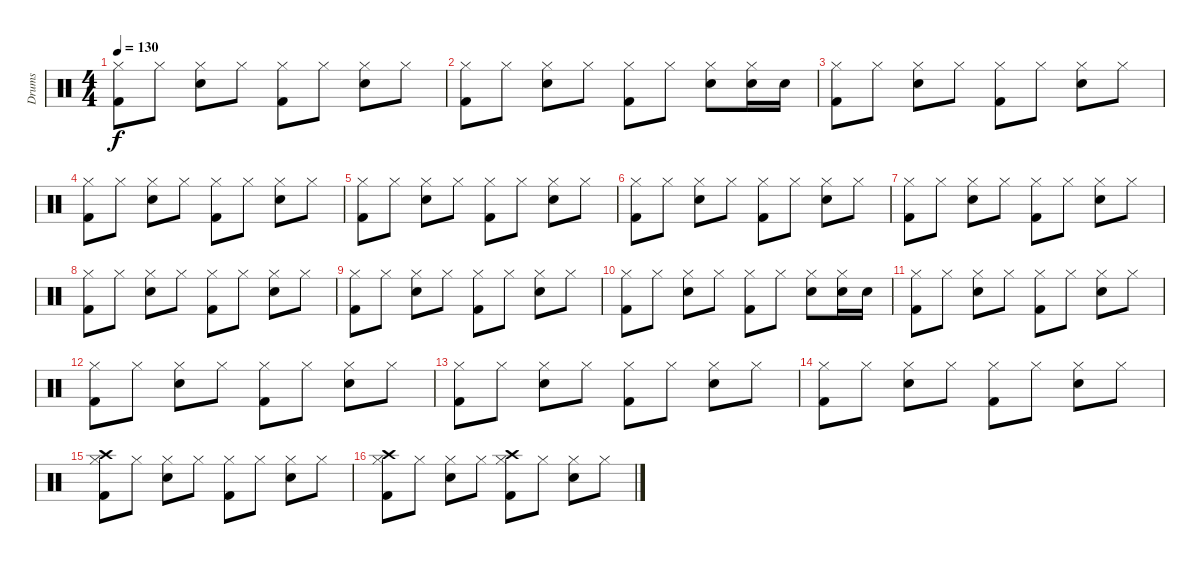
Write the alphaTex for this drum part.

\track ("Drums" "Drums") {instrument percussion}
\staff {score}
\articulation defaults
\ts (4 4)
\tempo 130
\clef neutral
\ks c
("Kick (hit) 2" "Hi-Hat (closed)").8{dy f} "Hi-Hat (closed)".8 ("Snare (hit) 2" "Hi-Hat (closed)").8 "Hi-Hat (closed)".8 ("Kick (hit) 2" "Hi-Hat (closed)").8 "Hi-Hat (closed)".8 ("Snare (hit) 2" "Hi-Hat (closed)").8 "Hi-Hat (closed)".8 |
("Kick (hit) 2" "Hi-Hat (closed)").8 "Hi-Hat (closed)".8 ("Snare (hit) 2" "Hi-Hat (closed)").8 "Hi-Hat (closed)".8 ("Kick (hit) 2" "Hi-Hat (closed)").8 "Hi-Hat (closed)".8 ("Snare (hit) 2" "Hi-Hat (closed)").8 ("Snare (hit) 2" "Hi-Hat (closed)").16 "Snare (hit) 2".16 |
("Kick (hit) 2" "Hi-Hat (closed)").8 "Hi-Hat (closed)".8 ("Snare (hit) 2" "Hi-Hat (closed)").8 "Hi-Hat (closed)".8 ("Kick (hit) 2" "Hi-Hat (closed)").8 "Hi-Hat (closed)".8 ("Snare (hit) 2" "Hi-Hat (closed)").8 "Hi-Hat (closed)".8 |
("Kick (hit) 2" "Hi-Hat (closed)").8 "Hi-Hat (closed)".8 ("Snare (hit) 2" "Hi-Hat (closed)").8 "Hi-Hat (closed)".8 ("Kick (hit) 2" "Hi-Hat (closed)").8 "Hi-Hat (closed)".8 ("Snare (hit) 2" "Hi-Hat (closed)").8 "Hi-Hat (closed)".8 |
("Kick (hit) 2" "Hi-Hat (closed)").8 "Hi-Hat (closed)".8 ("Snare (hit) 2" "Hi-Hat (closed)").8 "Hi-Hat (closed)".8 ("Kick (hit) 2" "Hi-Hat (closed)").8 "Hi-Hat (closed)".8 ("Snare (hit) 2" "Hi-Hat (closed)").8 "Hi-Hat (closed)".8 |
("Kick (hit) 2" "Hi-Hat (closed)").8 "Hi-Hat (closed)".8 ("Snare (hit) 2" "Hi-Hat (closed)").8 "Hi-Hat (closed)".8 ("Kick (hit) 2" "Hi-Hat (closed)").8 "Hi-Hat (closed)".8 ("Snare (hit) 2" "Hi-Hat (closed)").8 "Hi-Hat (closed)".8 |
("Kick (hit) 2" "Hi-Hat (closed)").8 "Hi-Hat (closed)".8 ("Snare (hit) 2" "Hi-Hat (closed)").8 "Hi-Hat (closed)".8 ("Kick (hit) 2" "Hi-Hat (closed)").8 "Hi-Hat (closed)".8 ("Snare (hit) 2" "Hi-Hat (closed)").8 "Hi-Hat (closed)".8 |
("Kick (hit) 2" "Hi-Hat (closed)").8 "Hi-Hat (closed)".8 ("Snare (hit) 2" "Hi-Hat (closed)").8 "Hi-Hat (closed)".8 ("Kick (hit) 2" "Hi-Hat (closed)").8 "Hi-Hat (closed)".8 ("Snare (hit) 2" "Hi-Hat (closed)").8 "Hi-Hat (closed)".8 |
("Kick (hit) 2" "Hi-Hat (closed)").8 "Hi-Hat (closed)".8 ("Snare (hit) 2" "Hi-Hat (closed)").8 "Hi-Hat (closed)".8 ("Kick (hit) 2" "Hi-Hat (closed)").8 "Hi-Hat (closed)".8 ("Snare (hit) 2" "Hi-Hat (closed)").8 "Hi-Hat (closed)".8 |
("Kick (hit) 2" "Hi-Hat (closed)").8 "Hi-Hat (closed)".8 ("Snare (hit) 2" "Hi-Hat (closed)").8 "Hi-Hat (closed)".8 ("Kick (hit) 2" "Hi-Hat (closed)").8 "Hi-Hat (closed)".8 ("Snare (hit) 2" "Hi-Hat (closed)").8 ("Snare (hit) 2" "Hi-Hat (closed)").16 "Snare (hit) 2".16 |
("Kick (hit) 2" "Hi-Hat (closed)").8 "Hi-Hat (closed)".8 ("Snare (hit) 2" "Hi-Hat (closed)").8 "Hi-Hat (closed)".8 ("Kick (hit) 2" "Hi-Hat (closed)").8 "Hi-Hat (closed)".8 ("Snare (hit) 2" "Hi-Hat (closed)").8 "Hi-Hat (closed)".8 |
("Kick (hit) 2" "Hi-Hat (closed)").8 "Hi-Hat (closed)".8 ("Snare (hit) 2" "Hi-Hat (closed)").8 "Hi-Hat (closed)".8 ("Kick (hit) 2" "Hi-Hat (closed)").8 "Hi-Hat (closed)".8 ("Snare (hit) 2" "Hi-Hat (closed)").8 "Hi-Hat (closed)".8 |
("Kick (hit) 2" "Hi-Hat (closed)").8 "Hi-Hat (closed)".8 ("Snare (hit) 2" "Hi-Hat (closed)").8 "Hi-Hat (closed)".8 ("Kick (hit) 2" "Hi-Hat (closed)").8 "Hi-Hat (closed)".8 ("Snare (hit) 2" "Hi-Hat (closed)").8 "Hi-Hat (closed)".8 |
("Kick (hit) 2" "Hi-Hat (closed)").8 "Hi-Hat (closed)".8 ("Snare (hit) 2" "Hi-Hat (closed)").8 "Hi-Hat (closed)".8 ("Kick (hit) 2" "Hi-Hat (closed)").8 "Hi-Hat (closed)".8 ("Snare (hit) 2" "Hi-Hat (closed)").8 "Hi-Hat (closed)".8 |
("Kick (hit) 2" "Hi-Hat (closed)" "Crash high (hit)").8 "Hi-Hat (closed)".8 ("Snare (hit) 2" "Hi-Hat (closed)").8 "Hi-Hat (closed)".8 ("Kick (hit) 2" "Hi-Hat (closed)").8 "Hi-Hat (closed)".8 ("Snare (hit) 2" "Hi-Hat (closed)").8 "Hi-Hat (closed)".8 |
("Kick (hit) 2" "Hi-Hat (closed)" "Crash high (hit)").8 "Hi-Hat (closed)".8 ("Snare (hit) 2" "Hi-Hat (closed)").8 "Hi-Hat (closed)".8 ("Kick (hit) 2" "Hi-Hat (closed)" "Crash high (hit)").8 "Hi-Hat (closed)".8 ("Snare (hit) 2" "Hi-Hat (closed)").8 "Hi-Hat (closed)".8
